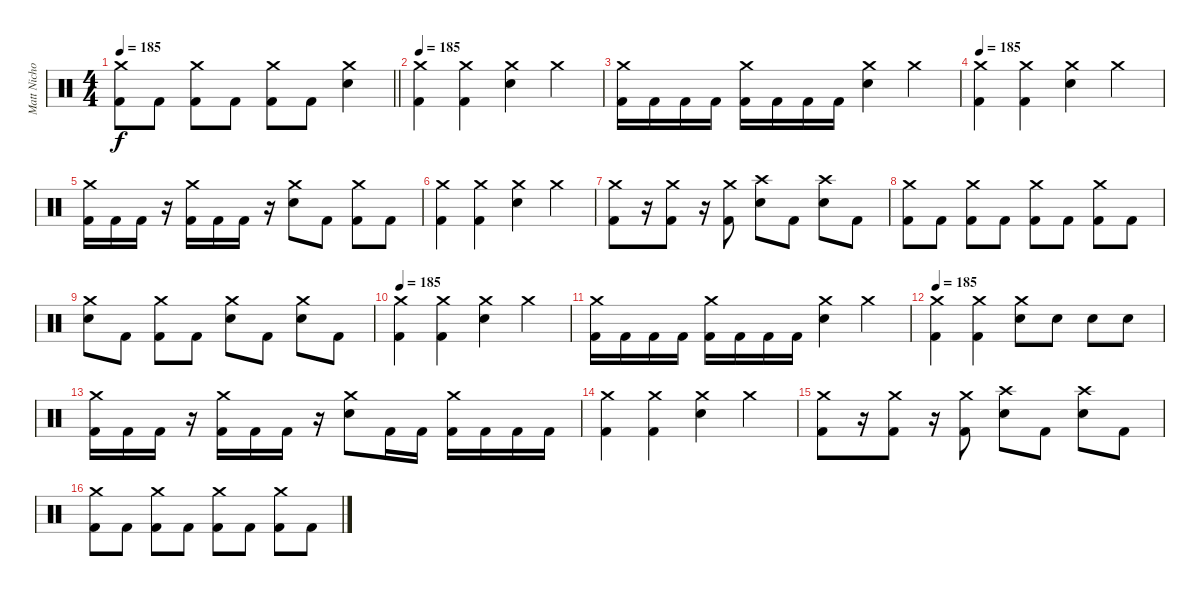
\track ("Matt Nichols" "Matt Nicho") {instrument percussion}
\staff {score}
\articulation defaults
\ts (4 4)
\tempo 185
\clef neutral
\barLineRight lightlight
\ks c
("Crash medium (hit)" "Kick (hit) 2").8{dy f} "Kick (hit) 2".8 ("Crash medium (hit)" "Kick (hit) 2").8 "Kick (hit) 2".8 ("Crash medium (hit)" "Kick (hit) 2").8 "Kick (hit) 2".8 ("Crash medium (hit)" "Electric Snare (hit)").4 |
\tempo 185
("Crash medium (hit)" "Kick (hit) 2").4 ("Crash medium (hit)" "Kick (hit) 2").4 ("Crash medium (hit)" "Electric Snare (hit)").4 "Crash medium (hit)".4 |
("Crash medium (hit)" "Kick (hit) 2").16 "Kick (hit) 2".16 "Kick (hit) 2".16 "Kick (hit) 2".16 ("Crash medium (hit)" "Kick (hit) 2").16 "Kick (hit) 2".16 "Kick (hit) 2".16 "Kick (hit) 2".16 ("Crash medium (hit)" "Electric Snare (hit)").4 "Crash medium (hit)".4 |
\tempo 185
("Crash medium (hit)" "Kick (hit) 2").4 ("Crash medium (hit)" "Kick (hit) 2").4 ("Crash medium (hit)" "Electric Snare (hit)").4 "Crash medium (hit)".4 |
("Crash medium (hit)" "Kick (hit) 2").16 "Kick (hit) 2".16 "Kick (hit) 2".16 r.16 ("Crash medium (hit)" "Kick (hit) 2").16 "Kick (hit) 2".16 "Kick (hit) 2".16 r.16 ("Crash medium (hit)" "Electric Snare (hit)").8 "Kick (hit) 2".8 ("Crash medium (hit)" "Kick (hit) 2").8 "Kick (hit) 2".8 |
("Crash medium (hit)" "Kick (hit) 2").4 ("Crash medium (hit)" "Kick (hit) 2").4 ("Crash medium (hit)" "Electric Snare (hit)").4 "Crash medium (hit)".4 |
("Crash medium (hit)" "Kick (hit) 2").8 r.16 ("Crash medium (hit)" "Kick (hit) 2").8 r.16 ("Crash medium (hit)" "Kick (hit) 2").8 ("Crash high (hit)" "Electric Snare (hit)").8 "Kick (hit) 2".8 ("Crash high (hit)" "Electric Snare (hit)").8 "Kick (hit) 2".8 |
("Crash medium (hit)" "Kick (hit) 2").8 "Kick (hit) 2".8 ("Crash medium (hit)" "Kick (hit) 2").8 "Kick (hit) 2".8 ("Crash medium (hit)" "Kick (hit) 2").8 "Kick (hit) 2".8 ("Crash medium (hit)" "Kick (hit) 2").8 "Kick (hit) 2".8 |
("Crash medium (hit)" "Electric Snare (hit)").8 "Kick (hit) 2".8 ("Crash medium (hit)" "Kick (hit) 2").8 "Kick (hit) 2".8 ("Crash medium (hit)" "Electric Snare (hit)").8 "Kick (hit) 2".8 ("Crash medium (hit)" "Electric Snare (hit)").8 "Kick (hit) 2".8 |
\tempo 185
("Crash medium (hit)" "Kick (hit) 2").4 ("Crash medium (hit)" "Kick (hit) 2").4 ("Crash medium (hit)" "Electric Snare (hit)").4 "Crash medium (hit)".4 |
("Crash medium (hit)" "Kick (hit) 2").16 "Kick (hit) 2".16 "Kick (hit) 2".16 "Kick (hit) 2".16 ("Crash medium (hit)" "Kick (hit) 2").16 "Kick (hit) 2".16 "Kick (hit) 2".16 "Kick (hit) 2".16 ("Crash medium (hit)" "Electric Snare (hit)").4 "Crash medium (hit)".4 |
\tempo 185
("Crash medium (hit)" "Kick (hit) 2").4 ("Crash medium (hit)" "Kick (hit) 2").4 ("Crash medium (hit)" "Electric Snare (hit)").8 "Electric Snare (hit)".8 "Electric Snare (hit)".8 "Electric Snare (hit)".8 |
("Crash medium (hit)" "Kick (hit) 2").16 "Kick (hit) 2".16 "Kick (hit) 2".16 r.16 ("Crash medium (hit)" "Kick (hit) 2").16 "Kick (hit) 2".16 "Kick (hit) 2".16 r.16 ("Crash medium (hit)" "Electric Snare (hit)").8 "Kick (hit) 2".16 "Kick (hit) 2".16 ("Crash medium (hit)" "Kick (hit) 2").16 "Kick (hit) 2".16 "Kick (hit) 2".16 "Kick (hit) 2".16 |
("Crash medium (hit)" "Kick (hit) 2").4 ("Crash medium (hit)" "Kick (hit) 2").4 ("Crash medium (hit)" "Electric Snare (hit)").4 "Crash medium (hit)".4 |
("Crash medium (hit)" "Kick (hit) 2").8 r.16 ("Crash medium (hit)" "Kick (hit) 2").8 r.16 ("Crash medium (hit)" "Kick (hit) 2").8 ("Crash high (hit)" "Electric Snare (hit)").8 "Kick (hit) 2".8 ("Crash high (hit)" "Electric Snare (hit)").8 "Kick (hit) 2".8 |
("Crash medium (hit)" "Kick (hit) 2").8 "Kick (hit) 2".8 ("Crash medium (hit)" "Kick (hit) 2").8 "Kick (hit) 2".8 ("Crash medium (hit)" "Kick (hit) 2").8 "Kick (hit) 2".8 ("Crash medium (hit)" "Kick (hit) 2").8 "Kick (hit) 2".8
